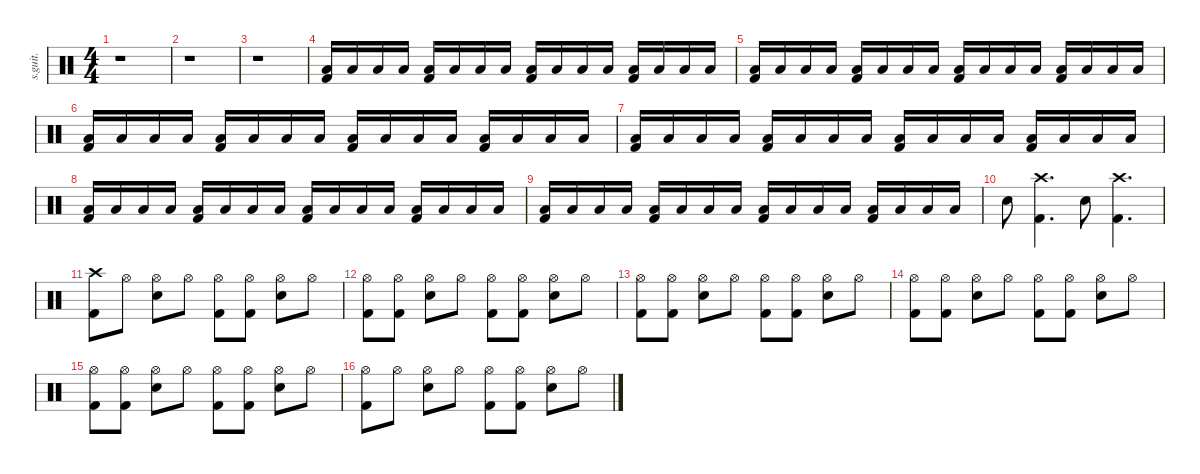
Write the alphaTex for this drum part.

\defaultSystemsLayout 4
\hideDynamics
\bracketExtendMode nobrackets
\track ("" "s.guit.") {instrument percussion}
\staff {score}
\articulation defaults
\ts (4 4)
\tempo (100 hide)
\clef neutral
\ks c
r.1{dy mf} |
r.1 |
r.1 |
("Low Floor Tom (hit)" "Kick (hit) 2").16 "Low Floor Tom (hit)".16 "Low Floor Tom (hit)".16 "Low Floor Tom (hit)".16 ("Low Floor Tom (hit)" "Kick (hit) 2").16 "Low Floor Tom (hit)".16 "Low Floor Tom (hit)".16 "Low Floor Tom (hit)".16 ("Low Floor Tom (hit)" "Kick (hit) 2").16 "Low Floor Tom (hit)".16 "Low Floor Tom (hit)".16 "Low Floor Tom (hit)".16 ("Low Floor Tom (hit)" "Kick (hit) 2").16 "Low Floor Tom (hit)".16 "Low Floor Tom (hit)".16 "Low Floor Tom (hit)".16 |
("Low Floor Tom (hit)" "Kick (hit) 2").16 "Low Floor Tom (hit)".16 "Low Floor Tom (hit)".16 "Low Floor Tom (hit)".16 ("Low Floor Tom (hit)" "Kick (hit) 2").16 "Low Floor Tom (hit)".16 "Low Floor Tom (hit)".16 "Low Floor Tom (hit)".16 ("Low Floor Tom (hit)" "Kick (hit) 2").16 "Low Floor Tom (hit)".16 "Low Floor Tom (hit)".16 "Low Floor Tom (hit)".16 ("Low Floor Tom (hit)" "Kick (hit) 2").16 "Low Floor Tom (hit)".16 "Low Floor Tom (hit)".16 "Low Floor Tom (hit)".16 |
("Low Floor Tom (hit)" "Kick (hit) 2").16 "Low Floor Tom (hit)".16 "Low Floor Tom (hit)".16 "Low Floor Tom (hit)".16 ("Low Floor Tom (hit)" "Kick (hit) 2").16 "Low Floor Tom (hit)".16 "Low Floor Tom (hit)".16 "Low Floor Tom (hit)".16 ("Low Floor Tom (hit)" "Kick (hit) 2").16 "Low Floor Tom (hit)".16 "Low Floor Tom (hit)".16 "Low Floor Tom (hit)".16 ("Low Floor Tom (hit)" "Kick (hit) 2").16 "Low Floor Tom (hit)".16 "Low Floor Tom (hit)".16 "Low Floor Tom (hit)".16 |
("Low Floor Tom (hit)" "Kick (hit) 2").16 "Low Floor Tom (hit)".16 "Low Floor Tom (hit)".16 "Low Floor Tom (hit)".16 ("Low Floor Tom (hit)" "Kick (hit) 2").16 "Low Floor Tom (hit)".16 "Low Floor Tom (hit)".16 "Low Floor Tom (hit)".16 ("Low Floor Tom (hit)" "Kick (hit) 2").16 "Low Floor Tom (hit)".16 "Low Floor Tom (hit)".16 "Low Floor Tom (hit)".16 ("Low Floor Tom (hit)" "Kick (hit) 2").16 "Low Floor Tom (hit)".16 "Low Floor Tom (hit)".16 "Low Floor Tom (hit)".16 |
("Low Floor Tom (hit)" "Kick (hit) 2").16 "Low Floor Tom (hit)".16 "Low Floor Tom (hit)".16 "Low Floor Tom (hit)".16 ("Low Floor Tom (hit)" "Kick (hit) 2").16 "Low Floor Tom (hit)".16 "Low Floor Tom (hit)".16 "Low Floor Tom (hit)".16 ("Low Floor Tom (hit)" "Kick (hit) 2").16 "Low Floor Tom (hit)".16 "Low Floor Tom (hit)".16 "Low Floor Tom (hit)".16 ("Low Floor Tom (hit)" "Kick (hit) 2").16 "Low Floor Tom (hit)".16 "Low Floor Tom (hit)".16 "Low Floor Tom (hit)".16 |
("Low Floor Tom (hit)" "Kick (hit) 2").16 "Low Floor Tom (hit)".16 "Low Floor Tom (hit)".16 "Low Floor Tom (hit)".16 ("Low Floor Tom (hit)" "Kick (hit) 2").16 "Low Floor Tom (hit)".16 "Low Floor Tom (hit)".16 "Low Floor Tom (hit)".16 ("Low Floor Tom (hit)" "Kick (hit) 2").16 "Low Floor Tom (hit)".16 "Low Floor Tom (hit)".16 "Low Floor Tom (hit)".16 ("Low Floor Tom (hit)" "Kick (hit) 2").16 "Low Floor Tom (hit)".16 "Low Floor Tom (hit)".16 "Low Floor Tom (hit)".16 |
"Snare (hit) 2".8 ("Crash high (hit)" "Kick (hit) 2").4{d} "Snare (hit) 2".8 ("Crash high (hit)" "Kick (hit) 2").4{d} |
("Crash high (hit)" "Kick (hit) 2").8 "Hi-Hat (open)".8 ("Hi-Hat (open)" "Snare (hit) 2").8 "Hi-Hat (open)".8 ("Hi-Hat (open)" "Kick (hit) 2").8 ("Hi-Hat (open)" "Kick (hit) 2").8 ("Hi-Hat (open)" "Snare (hit) 2").8 "Hi-Hat (open)".8 |
("Hi-Hat (open)" "Kick (hit) 2").8 ("Hi-Hat (open)" "Kick (hit) 2").8 ("Hi-Hat (open)" "Snare (hit) 2").8 "Hi-Hat (open)".8 ("Hi-Hat (open)" "Kick (hit) 2").8 ("Hi-Hat (open)" "Kick (hit) 2").8 ("Hi-Hat (open)" "Snare (hit) 2").8 "Hi-Hat (open)".8 |
("Hi-Hat (open)" "Kick (hit) 2").8 ("Hi-Hat (open)" "Kick (hit) 2").8 ("Hi-Hat (open)" "Snare (hit) 2").8 "Hi-Hat (open)".8 ("Hi-Hat (open)" "Kick (hit) 2").8 ("Hi-Hat (open)" "Kick (hit) 2").8 ("Hi-Hat (open)" "Snare (hit) 2").8 "Hi-Hat (open)".8 |
("Hi-Hat (open)" "Kick (hit) 2").8 ("Hi-Hat (open)" "Kick (hit) 2").8 ("Hi-Hat (open)" "Snare (hit) 2").8 "Hi-Hat (open)".8 ("Hi-Hat (open)" "Kick (hit) 2").8 ("Hi-Hat (open)" "Kick (hit) 2").8 ("Hi-Hat (open)" "Snare (hit) 2").8 "Hi-Hat (open)".8 |
("Hi-Hat (open)" "Kick (hit) 2").8 ("Hi-Hat (open)" "Kick (hit) 2").8 ("Hi-Hat (open)" "Snare (hit) 2").8 "Hi-Hat (open)".8 ("Hi-Hat (open)" "Kick (hit) 2").8 ("Hi-Hat (open)" "Kick (hit) 2").8 ("Hi-Hat (open)" "Snare (hit) 2").8 "Hi-Hat (open)".8 |
("Hi-Hat (open)" "Kick (hit) 2").8 "Hi-Hat (open)".8 ("Hi-Hat (open)" "Snare (hit) 2").8 "Hi-Hat (open)".8 ("Hi-Hat (open)" "Kick (hit) 2").8 ("Hi-Hat (open)" "Kick (hit) 2").8 ("Hi-Hat (open)" "Snare (hit) 2").8 "Hi-Hat (open)".8
